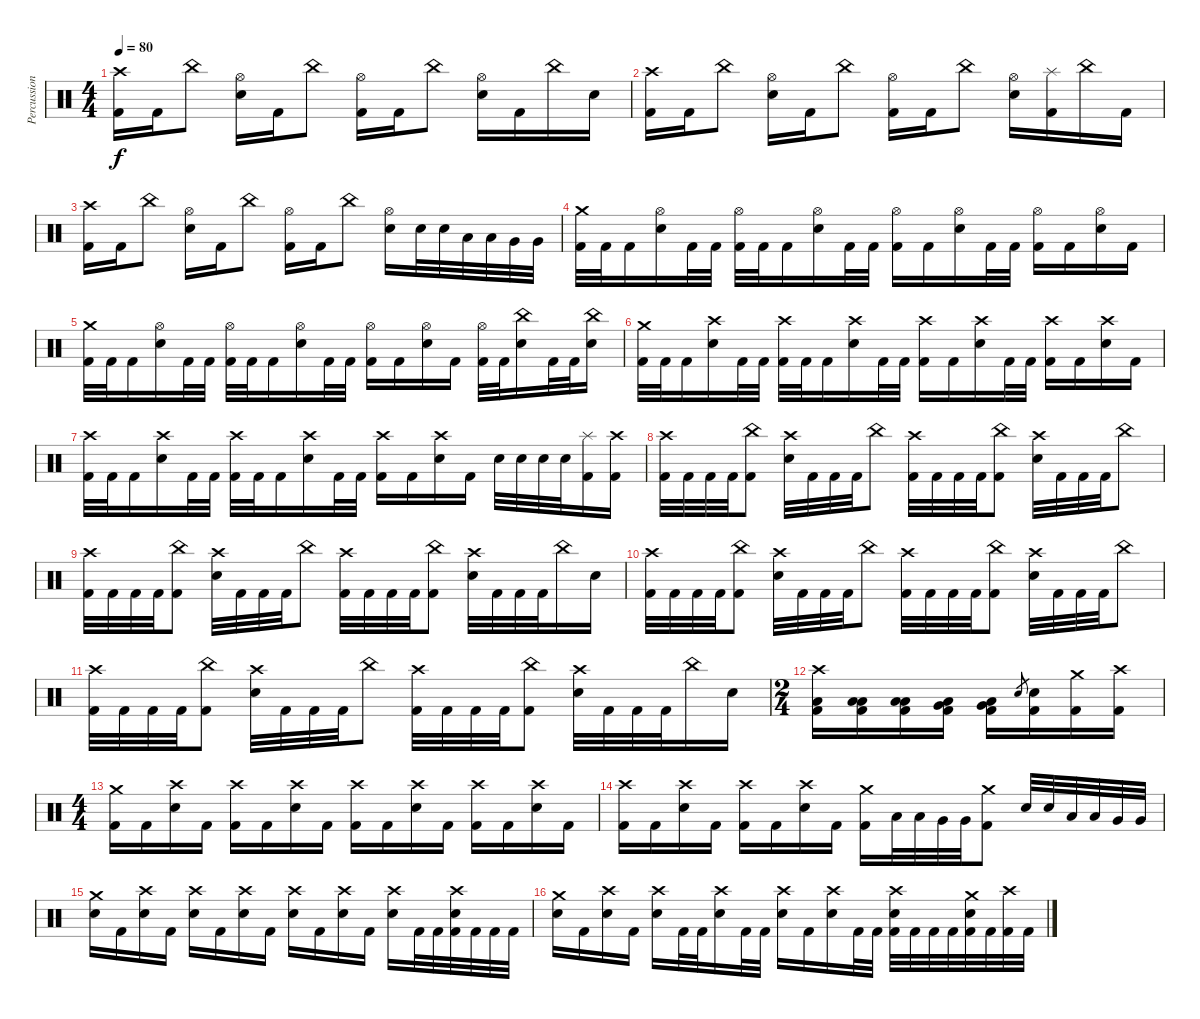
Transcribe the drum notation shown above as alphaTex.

\track ("Percussions" "Percussion") {instrument percussion}
\staff {score}
\articulation defaults
\ts (4 4)
\tempo 80
\clef neutral
\ks c
("Crash high (hit)" "Kick (hit) 2").16{dy f} "Kick (hit) 2".16 "China (hit)".8 ("Hi-Hat (open)" "Electric Snare (hit)").16 "Kick (hit) 2".16 "China (hit)".8 ("Hi-Hat (open)" "Kick (hit) 2").16 "Kick (hit) 2".16 "China (hit)".8 ("Hi-Hat (open)" "Electric Snare (hit)").16 "Kick (hit) 2".16 "China (hit)".16 "Electric Snare (hit)".16 |
("Crash high (hit)" "Kick (hit) 2").16 "Kick (hit) 2".16 "China (hit)".8 ("Hi-Hat (open)" "Electric Snare (hit)").16 "Kick (hit) 2".16 "China (hit)".8 ("Hi-Hat (open)" "Kick (hit) 2").16 "Kick (hit) 2".16 "China (hit)".8 ("Hi-Hat (open)" "Electric Snare (hit)").16 ("Splash (hit)" "Kick (hit) 2").16 "China (hit)".16 "Kick (hit) 2".16 |
("Crash high (hit)" "Kick (hit) 2").16 "Kick (hit) 2".16 "China (hit)".8 ("Hi-Hat (open)" "Electric Snare (hit)").16 "Kick (hit) 2".16 "China (hit)".8 ("Hi-Hat (open)" "Kick (hit) 2").16 "Kick (hit) 2".16 "China (hit)".8 ("Hi-Hat (open)" "Electric Snare (hit)").16 "Electric Snare (hit)".32 "Electric Snare (hit)".32 "Low Tom (hit)".32 "Low Tom (hit)".32 "Very Low Tom (hit)".32 "Very Low Tom (hit)".32 |
("Crash medium (hit)" "Kick (hit) 2").32 "Kick (hit) 2".32 "Kick (hit) 2".16 ("Hi-Hat (open)" "Electric Snare (hit)").16 "Kick (hit) 2".32 "Kick (hit) 2".32 ("Hi-Hat (open)" "Kick (hit) 2").32 "Kick (hit) 2".32 "Kick (hit) 2".16 ("Hi-Hat (open)" "Electric Snare (hit)").16 "Kick (hit) 2".32 "Kick (hit) 2".32 ("Hi-Hat (open)" "Kick (hit) 2").16 "Kick (hit) 2".16 ("Hi-Hat (open)" "Electric Snare (hit)").16 "Kick (hit) 2".32 "Kick (hit) 2".32 ("Hi-Hat (open)" "Kick (hit) 2").16 "Kick (hit) 2".16 ("Hi-Hat (open)" "Electric Snare (hit)").16 "Kick (hit) 2".16 |
("Crash medium (hit)" "Kick (hit) 2").32 "Kick (hit) 2".32 "Kick (hit) 2".16 ("Hi-Hat (open)" "Electric Snare (hit)").16 "Kick (hit) 2".32 "Kick (hit) 2".32 ("Hi-Hat (open)" "Kick (hit) 2").32 "Kick (hit) 2".32 "Kick (hit) 2".16 ("Hi-Hat (open)" "Electric Snare (hit)").16 "Kick (hit) 2".32 "Kick (hit) 2".32 ("Hi-Hat (open)" "Kick (hit) 2").16 "Kick (hit) 2".16 ("Hi-Hat (open)" "Electric Snare (hit)").16 "Kick (hit) 2".16 ("Hi-Hat (open)" "Kick (hit) 2").32 "Kick (hit) 2".32 ("China (hit)" "Electric Snare (hit)").16 "Kick (hit) 2".32 "Kick (hit) 2".32 ("China (hit)" "Electric Snare (hit)").16 |
("Crash medium (hit)" "Kick (hit) 2").32 "Kick (hit) 2".32 "Kick (hit) 2".16 ("Crash high (hit)" "Electric Snare (hit)").16 "Kick (hit) 2".32 "Kick (hit) 2".32 ("Crash high (hit)" "Kick (hit) 2").32 "Kick (hit) 2".32 "Kick (hit) 2".16 ("Crash high (hit)" "Electric Snare (hit)").16 "Kick (hit) 2".32 "Kick (hit) 2".32 ("Crash high (hit)" "Kick (hit) 2").16 "Kick (hit) 2".16 ("Crash high (hit)" "Electric Snare (hit)").16 "Kick (hit) 2".32 "Kick (hit) 2".32 ("Crash high (hit)" "Kick (hit) 2").16 "Kick (hit) 2".16 ("Crash high (hit)" "Electric Snare (hit)").16 "Kick (hit) 2".16 |
("Crash high (hit)" "Kick (hit) 2").32 "Kick (hit) 2".32 "Kick (hit) 2".16 ("Crash high (hit)" "Electric Snare (hit)").16 "Kick (hit) 2".32 "Kick (hit) 2".32 ("Crash high (hit)" "Kick (hit) 2").32 "Kick (hit) 2".32 "Kick (hit) 2".16 ("Crash high (hit)" "Electric Snare (hit)").16 "Kick (hit) 2".32 "Kick (hit) 2".32 ("Crash high (hit)" "Kick (hit) 2").16 "Kick (hit) 2".16 ("Crash high (hit)" "Electric Snare (hit)").16 "Kick (hit) 2".16 "Electric Snare (hit)".32 "Electric Snare (hit)".32 "Electric Snare (hit)".32 "Electric Snare (hit)".32 ("Splash (hit)" "Kick (hit) 2").16 ("Crash high (hit)" "Kick (hit) 2").16 |
("Crash high (hit)" "Kick (hit) 2").32 "Kick (hit) 2".32 "Kick (hit) 2".32 "Kick (hit) 2".32 ("China (hit)" "Kick (hit) 2").8 ("Crash high (hit)" "Electric Snare (hit)").32 "Kick (hit) 2".32 "Kick (hit) 2".32 "Kick (hit) 2".32 "China (hit)".8 ("Crash high (hit)" "Kick (hit) 2").32 "Kick (hit) 2".32 "Kick (hit) 2".32 "Kick (hit) 2".32 ("China (hit)" "Kick (hit) 2").8 ("Crash high (hit)" "Electric Snare (hit)").32 "Kick (hit) 2".32 "Kick (hit) 2".32 "Kick (hit) 2".32 "China (hit)".8 |
("Crash high (hit)" "Kick (hit) 2").32 "Kick (hit) 2".32 "Kick (hit) 2".32 "Kick (hit) 2".32 ("China (hit)" "Kick (hit) 2").8 ("Crash high (hit)" "Electric Snare (hit)").32 "Kick (hit) 2".32 "Kick (hit) 2".32 "Kick (hit) 2".32 "China (hit)".8 ("Crash high (hit)" "Kick (hit) 2").32 "Kick (hit) 2".32 "Kick (hit) 2".32 "Kick (hit) 2".32 ("China (hit)" "Kick (hit) 2").8 ("Crash high (hit)" "Electric Snare (hit)").32 "Kick (hit) 2".32 "Kick (hit) 2".32 "Kick (hit) 2".32 "China (hit)".16 "Electric Snare (hit)".16 |
("Crash high (hit)" "Kick (hit) 2").32 "Kick (hit) 2".32 "Kick (hit) 2".32 "Kick (hit) 2".32 ("China (hit)" "Kick (hit) 2").8 ("Crash high (hit)" "Electric Snare (hit)").32 "Kick (hit) 2".32 "Kick (hit) 2".32 "Kick (hit) 2".32 "China (hit)".8 ("Crash high (hit)" "Kick (hit) 2").32 "Kick (hit) 2".32 "Kick (hit) 2".32 "Kick (hit) 2".32 ("China (hit)" "Kick (hit) 2").8 ("Crash high (hit)" "Electric Snare (hit)").32 "Kick (hit) 2".32 "Kick (hit) 2".32 "Kick (hit) 2".32 "China (hit)".8 |
("Crash high (hit)" "Kick (hit) 2").32 "Kick (hit) 2".32 "Kick (hit) 2".32 "Kick (hit) 2".32 ("China (hit)" "Kick (hit) 2").8 ("Crash high (hit)" "Electric Snare (hit)").32 "Kick (hit) 2".32 "Kick (hit) 2".32 "Kick (hit) 2".32 "China (hit)".8 ("Crash high (hit)" "Kick (hit) 2").32 "Kick (hit) 2".32 "Kick (hit) 2".32 "Kick (hit) 2".32 ("China (hit)" "Kick (hit) 2").8 ("Crash high (hit)" "Electric Snare (hit)").32 "Kick (hit) 2".32 "Kick (hit) 2".32 "Kick (hit) 2".32 "China (hit)".16 "Electric Snare (hit)".16 |
\ts (2 4)
("Crash high (hit)" "Low Floor Tom (hit)" "Kick (hit) 2").16 ("Low Tom (hit)" "Low Floor Tom (hit)" "Kick (hit) 2").16 ("Low Tom (hit)" "Low Floor Tom (hit)" "Kick (hit) 2").16 ("Very Low Tom (hit)" "Low Floor Tom (hit)" "Kick (hit) 2").16 ("Very Low Tom (hit)" "Low Floor Tom (hit)" "Kick (hit) 2").16 "Electric Snare (hit)".8{gr} ("Electric Snare (hit)" "Kick (hit) 2").16 ("Crash medium (hit)" "Kick (hit) 2").16 ("Crash high (hit)" "Kick (hit) 2").16 |
\ts (4 4)
("Crash medium (hit)" "Kick (hit) 2").16 "Kick (hit) 2".16 ("Crash high (hit)" "Electric Snare (hit)").16 "Kick (hit) 2".16 ("Crash high (hit)" "Kick (hit) 2").16 "Kick (hit) 2".16 ("Crash high (hit)" "Electric Snare (hit)").16 "Kick (hit) 2".16 ("Crash high (hit)" "Kick (hit) 2").16 "Kick (hit) 2".16 ("Crash high (hit)" "Electric Snare (hit)").16 "Kick (hit) 2".16 ("Crash high (hit)" "Kick (hit) 2").16 "Kick (hit) 2".16 ("Crash high (hit)" "Electric Snare (hit)").16 "Kick (hit) 2".16 |
("Crash high (hit)" "Kick (hit) 2").16 "Kick (hit) 2".16 ("Crash high (hit)" "Electric Snare (hit)").16 "Kick (hit) 2".16 ("Crash high (hit)" "Kick (hit) 2").16 "Kick (hit) 2".16 ("Crash high (hit)" "Electric Snare (hit)").16 "Kick (hit) 2".16 ("Crash medium (hit)" "Kick (hit) 2").16 "Low Tom (hit)".32 "Low Tom (hit)".32 "Very Low Tom (hit)".32 "Very Low Tom (hit)".32 ("Crash medium (hit)" "Kick (hit) 2").8 "Electric Snare (hit)".32 "Electric Snare (hit)".32 "Low Tom (hit)".32 "Low Tom (hit)".32 "Very Low Tom (hit)".32 "Very Low Tom (hit)".32 |
("Crash medium (hit)" "Electric Snare (hit)").16 "Kick (hit) 2".16 ("Crash high (hit)" "Electric Snare (hit)").16 "Kick (hit) 2".16 ("Crash high (hit)" "Electric Snare (hit)").16 "Kick (hit) 2".16 ("Crash high (hit)" "Electric Snare (hit)").16 "Kick (hit) 2".16 ("Crash high (hit)" "Electric Snare (hit)").16 "Kick (hit) 2".16 ("Crash high (hit)" "Electric Snare (hit)").16 "Kick (hit) 2".16 ("Crash high (hit)" "Electric Snare (hit)").16 "Kick (hit) 2".32 "Kick (hit) 2".32 ("Crash high (hit)" "Electric Snare (hit)" "Kick (hit) 2").32 "Kick (hit) 2".32 "Kick (hit) 2".32 "Kick (hit) 2".32 |
("Crash medium (hit)" "Electric Snare (hit)").16 "Kick (hit) 2".16 ("Crash high (hit)" "Electric Snare (hit)").16 "Kick (hit) 2".16 ("Crash high (hit)" "Electric Snare (hit)").16 "Kick (hit) 2".32 "Kick (hit) 2".32 ("Crash high (hit)" "Electric Snare (hit)").16 "Kick (hit) 2".32 "Kick (hit) 2".32 ("Crash high (hit)" "Electric Snare (hit)").16 "Kick (hit) 2".16 ("Crash high (hit)" "Electric Snare (hit)").16 "Kick (hit) 2".32 "Kick (hit) 2".32 ("Crash high (hit)" "Electric Snare (hit)" "Kick (hit) 2").32 "Kick (hit) 2".32 "Kick (hit) 2".32 "Kick (hit) 2".32 ("Crash medium (hit)" "Electric Snare (hit)" "Kick (hit) 2").32 "Kick (hit) 2".32 ("Crash high (hit)" "Kick (hit) 2").32 "Kick (hit) 2".32
